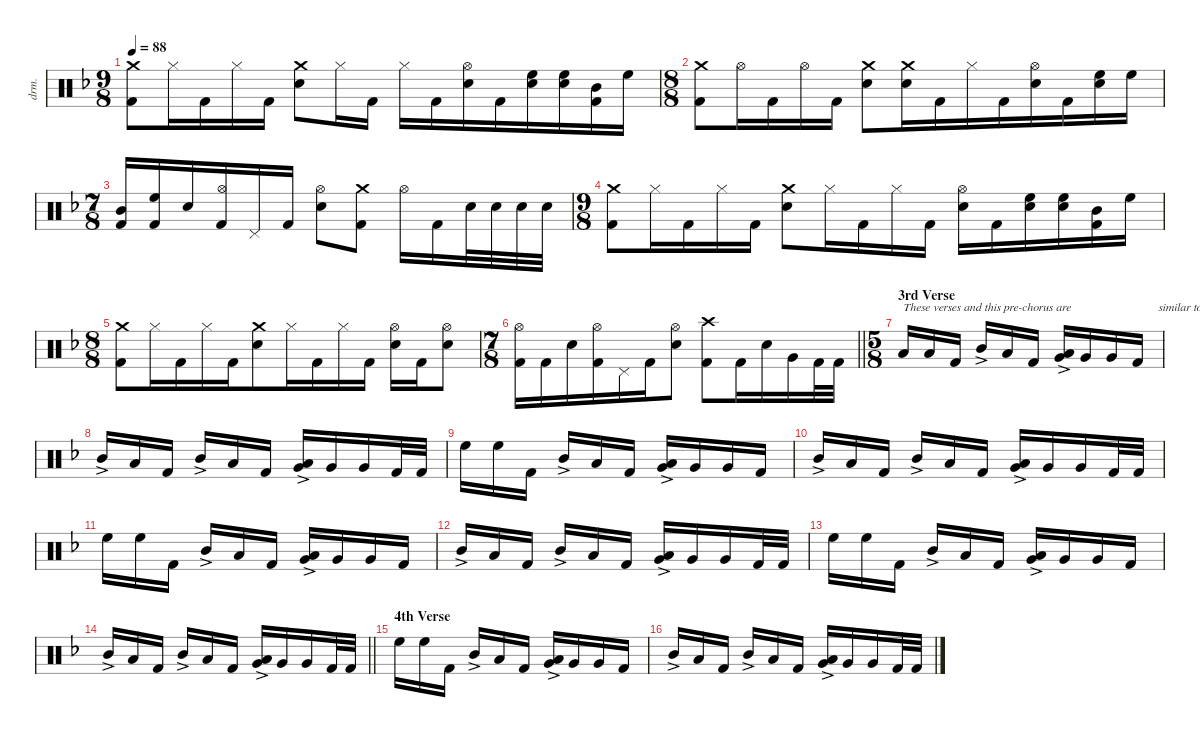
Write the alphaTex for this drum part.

\defaultSystemsLayout 4
\hideDynamics
\bracketExtendMode nobrackets
\otherSystemsTrackNameOrientation horizontal
\track ("Drums" "drm.") {instrument percussion}
\staff {score}
\articulation defaults
\ts (9 8)
\beaming (8 3 2 4)
\tempo 88
\clef neutral
\ks dminor
("Crash medium (hit)"{acc forcenatural} "Kick (hit) 2"{acc forcenatural}).8{dy f beam Down} "Hi-Hat (closed)"{acc forcenatural}.16{beam Down} "Kick (hit) 2"{acc forcenatural}.16{beam Down} "Hi-Hat (closed)"{acc forcenatural}.16{beam Down} "Kick (hit) 2"{acc forcenatural}.16{beam Down} ("Crash medium (hit)"{acc forcenatural} "Snare (hit) 2"{acc forcenatural}).8{beam Down} "Hi-Hat (closed)"{acc forcenatural}.16{beam Down} "Kick (hit) 2"{acc forcenatural}.16{beam Down} "Hi-Hat (closed)"{acc forcenatural}.16{beam Down} "Kick (hit) 2"{acc forcenatural}.16{beam Down} ("Hi-Hat (open)"{acc forcenatural} "Snare (hit) 2"{acc forcenatural}).16{beam Down} "Kick (hit) 2"{acc forcenatural}.16{beam Down} ("High Floor Tom (hit)"{acc forcenatural} "Snare (hit) 2"{acc forcenatural}).16{beam Down} ("High Floor Tom (hit)"{acc forcenatural} "Snare (hit) 2"{acc forcenatural}).16{beam Down} ("Mid Tom (hit)"{acc forcenatural} "Kick (hit) 2"{acc forcenatural}).16{beam Down} "High Floor Tom (hit)"{acc forcenatural}.16{beam Down} |
\ts (8 8)
\beaming (8 3 2 3)
("Crash medium (hit)"{acc forcenatural} "Kick (hit) 2"{acc forcenatural}).8{beam Down beam merge} "Hi-Hat (open)"{acc forcenatural}.16{beam Down} "Kick (hit) 2"{acc forcenatural}.16{beam Down beam merge} "Hi-Hat (open)"{acc forcenatural}.16{beam Down} "Kick (hit) 2"{acc forcenatural}.16{beam Down} ("Crash medium (hit)"{acc forcenatural} "Snare (hit) 2"{acc forcenatural}).8{beam Down beam merge} ("Crash medium (hit)"{acc forcenatural} "Snare (hit) 2"{acc forcenatural}).16{beam Down} "Kick (hit) 2"{acc forcenatural}.16{beam Down beam merge} "Hi-Hat (closed)"{acc forcenatural}.16{beam Down} "Kick (hit) 2"{acc forcenatural}.16{beam Down} ("Hi-Hat (open)"{acc forcenatural} "Snare (hit) 2"{acc forcenatural}).16{beam Down} "Kick (hit) 2"{acc forcenatural}.16{beam Down beam merge} ("High Floor Tom (hit)"{acc forcenatural} "Snare (hit) 2"{acc forcenatural}).16{beam Down} "High Floor Tom (hit)"{acc forcenatural}.16{beam Down} |
\ts (7 8)
\beaming (8 3 2 2)
("Mid Tom (hit)"{acc forcenatural} "Kick (hit) 2"{acc forcenatural}).16{beam Up} ("High Floor Tom (hit)"{acc forcenatural} "Kick (hit) 2"{acc forcenatural}).16{beam Up} "Snare (hit) 2"{acc forcenatural}.16{beam Up} ("Hi-Hat (open)"{acc forcenatural} "Kick (hit) 2"{acc forcenatural}).16{beam Up} "Pedal Hi-Hat (hit)"{acc forcenatural}.16{beam Up} "Kick (hit) 2"{acc forcenatural}.16{beam Up} ("Hi-Hat (open)"{acc forcenatural} "Snare (hit) 2"{acc forcenatural}).8{beam Down} ("Crash medium (hit)"{acc forcenatural} "Kick (hit) 2"{acc forcenatural}).8{beam Down} "Hi-Hat (open)"{acc forcenatural}.16{beam Down} "Kick (hit) 2"{acc forcenatural}.16{beam Down} "Snare (hit) 2"{acc forcenatural}.32{beam Down} "Snare (hit) 2"{acc forcenatural}.32{beam Down} "Snare (hit) 2"{acc forcenatural}.32{beam Down} "Snare (hit) 2"{acc forcenatural}.32{beam Down} |
\ts (9 8)
\beaming (8 3 3 3)
("Crash medium (hit)"{acc forcenatural} "Kick (hit) 2"{acc forcenatural}).8{beam Down} "Hi-Hat (closed)"{acc forcenatural}.16{beam Down} "Kick (hit) 2"{acc forcenatural}.16{beam Down} "Hi-Hat (closed)"{acc forcenatural}.16{beam Down} "Kick (hit) 2"{acc forcenatural}.16{beam Down} ("Crash medium (hit)"{acc forcenatural} "Snare (hit) 2"{acc forcenatural}).8{beam Down} "Hi-Hat (closed)"{acc forcenatural}.16{beam Down} "Kick (hit) 2"{acc forcenatural}.16{beam Down} "Hi-Hat (closed)"{acc forcenatural}.16{beam Down} "Kick (hit) 2"{acc forcenatural}.16{beam Down} ("Hi-Hat (open)"{acc forcenatural} "Snare (hit) 2"{acc forcenatural}).16{beam Down} "Kick (hit) 2"{acc forcenatural}.16{beam Down} ("High Floor Tom (hit)"{acc forcenatural} "Snare (hit) 2"{acc forcenatural}).16{beam Down} ("High Floor Tom (hit)"{acc forcenatural} "Snare (hit) 2"{acc forcenatural}).16{beam Down} ("Mid Tom (hit)"{acc forcenatural} "Kick (hit) 2"{acc forcenatural}).16{beam Down} "High Floor Tom (hit)"{acc forcenatural}.16{beam Down} |
\ts (8 8)
\beaming (8 2 2 2 2)
("Crash medium (hit)"{acc forcenatural} "Kick (hit) 2"{acc forcenatural}).8{beam Down beam merge} "Hi-Hat (closed)"{acc forcenatural}.16{beam Down} "Kick (hit) 2"{acc forcenatural}.16{beam Down beam merge} "Hi-Hat (closed)"{acc forcenatural}.16{beam Down} "Kick (hit) 2"{acc forcenatural}.16{beam Down} ("Crash medium (hit)"{acc forcenatural} "Snare (hit) 2"{acc forcenatural}).8{beam Down beam merge} "Hi-Hat (closed)"{acc forcenatural}.16{beam Down} "Kick (hit) 2"{acc forcenatural}.16{beam Down beam merge} "Hi-Hat (closed)"{acc forcenatural}.16{beam Down} "Kick (hit) 2"{acc forcenatural}.16{beam Down} ("Hi-Hat (open)"{acc forcenatural} "Snare (hit) 2"{acc forcenatural}).16{beam Down} "Kick (hit) 2"{acc forcenatural}.16{beam Down beam merge} ("Hi-Hat (open)"{acc forcenatural} "Snare (hit) 2"{acc forcenatural}).8{beam Down} |
\ts (7 8)
\beaming (8 2 2 2 2)
\barLineRight lightlight
("Hi-Hat (open)"{acc forcenatural} "Kick (hit) 2"{acc forcenatural}).16{beam Down} "Kick (hit) 2"{acc forcenatural}.16{beam Down beam merge} "Snare (hit) 2"{acc forcenatural}.16{beam Down} ("Hi-Hat (open)"{acc forcenatural} "Kick (hit) 2"{acc forcenatural}).16{beam Down beam merge} "Pedal Hi-Hat (hit)"{acc forcenatural}.16{beam Down} "Kick (hit) 2"{acc forcenatural}.16{beam Down beam merge} ("Hi-Hat (open)"{acc forcenatural} "Snare (hit) 2"{acc forcenatural}).8{beam Down beam split} ("Crash high (hit)"{acc forcenatural} "Kick (hit) 2"{acc forcenatural}).8{beam Down beam merge} "Kick (hit) 2"{acc forcenatural}.16{beam Down} "Snare (hit) 2"{acc forcenatural}.16{beam Down beam merge} "Very Low Tom (hit)"{acc forcenatural}.16{beam Down} "Kick (hit) 2"{acc forcenatural}.32{beam Down} "Kick (hit) 2"{acc forcenatural}.32{beam Down} |
\ts (5 8)
\beaming (8 2 2 2 2)
\section ("" "3rd Verse")
"Low Tom (hit)"{acc forcenatural}.16{txt "These verses and this pre-chorus are" beam Up} "Low Tom (hit)"{acc forcenatural}.16{beam Up beam merge} "Kick (hit) 2"{acc forcenatural}.16{beam Up beam split} "Mid Tom (hit)"{ac acc forcenatural}.16{beam Up beam merge} "Low Tom (hit)"{acc forcenatural}.16{beam Up} "Kick (hit) 2"{acc forcenatural}.16{beam Up beam split} ("Low Tom (hit)"{ac acc forcenatural} "Very Low Tom (hit)"{acc forcenatural}).16{beam Up} "Very Low Tom (hit)"{acc forcenatural}.16{beam Up beam merge} "Very Low Tom (hit)"{acc forcenatural}.16{beam Up} "Kick (hit) 2"{acc forcenatural}.16{txt "       similar to previous (bar 87-118 = 44-75)." beam Up} |
"Mid Tom (hit)"{ac acc forcenatural}.16{beam Up} "Low Tom (hit)"{acc forcenatural}.16{beam Up beam merge} "Kick (hit) 2"{acc forcenatural}.16{beam Up beam split} "Mid Tom (hit)"{ac acc forcenatural}.16{beam Up beam merge} "Low Tom (hit)"{acc forcenatural}.16{beam Up} "Kick (hit) 2"{acc forcenatural}.16{beam Up beam split} ("Low Tom (hit)"{ac acc forcenatural} "Very Low Tom (hit)"{acc forcenatural}).16{beam Up} "Very Low Tom (hit)"{acc forcenatural}.16{beam Up beam merge} "Very Low Tom (hit)"{acc forcenatural}.16{beam Up} "Kick (hit) 2"{acc forcenatural}.32{beam Up} "Kick (hit) 2"{acc forcenatural}.32{beam Up} |
"High Floor Tom (hit)"{acc forcenatural}.16{beam Down} "High Floor Tom (hit)"{acc forcenatural}.16{beam Down beam merge} "Kick (hit) 2"{acc forcenatural}.16{beam Down beam split} "Mid Tom (hit)"{ac acc forcenatural}.16{beam Up beam merge} "Low Tom (hit)"{acc forcenatural}.16{beam Up} "Kick (hit) 2"{acc forcenatural}.16{beam Up beam split} ("Low Tom (hit)"{ac acc forcenatural} "Very Low Tom (hit)"{acc forcenatural}).16{beam Up} "Very Low Tom (hit)"{acc forcenatural}.16{beam Up beam merge} "Very Low Tom (hit)"{acc forcenatural}.16{beam Up} "Kick (hit) 2"{acc forcenatural}.16{beam Up} |
"Mid Tom (hit)"{ac acc forcenatural}.16{beam Up} "Low Tom (hit)"{acc forcenatural}.16{beam Up beam merge} "Kick (hit) 2"{acc forcenatural}.16{beam Up beam split} "Mid Tom (hit)"{ac acc forcenatural}.16{beam Up beam merge} "Low Tom (hit)"{acc forcenatural}.16{beam Up} "Kick (hit) 2"{acc forcenatural}.16{beam Up beam split} ("Low Tom (hit)"{ac acc forcenatural} "Very Low Tom (hit)"{acc forcenatural}).16{beam Up} "Very Low Tom (hit)"{acc forcenatural}.16{beam Up beam merge} "Very Low Tom (hit)"{acc forcenatural}.16{beam Up} "Kick (hit) 2"{acc forcenatural}.32{beam Up} "Kick (hit) 2"{acc forcenatural}.32{beam Up} |
"High Floor Tom (hit)"{acc forcenatural}.16{beam Down} "High Floor Tom (hit)"{acc forcenatural}.16{beam Down beam merge} "Kick (hit) 2"{acc forcenatural}.16{beam Down beam split} "Mid Tom (hit)"{ac acc forcenatural}.16{beam Up beam merge} "Low Tom (hit)"{acc forcenatural}.16{beam Up} "Kick (hit) 2"{acc forcenatural}.16{beam Up beam split} ("Low Tom (hit)"{ac acc forcenatural} "Very Low Tom (hit)"{acc forcenatural}).16{beam Up} "Very Low Tom (hit)"{acc forcenatural}.16{beam Up beam merge} "Very Low Tom (hit)"{acc forcenatural}.16{beam Up} "Kick (hit) 2"{acc forcenatural}.16{beam Up} |
"Mid Tom (hit)"{ac acc forcenatural}.16{beam Up} "Low Tom (hit)"{acc forcenatural}.16{beam Up beam merge} "Kick (hit) 2"{acc forcenatural}.16{beam Up beam split} "Mid Tom (hit)"{ac acc forcenatural}.16{beam Up beam merge} "Low Tom (hit)"{acc forcenatural}.16{beam Up} "Kick (hit) 2"{acc forcenatural}.16{beam Up beam split} ("Low Tom (hit)"{ac acc forcenatural} "Very Low Tom (hit)"{acc forcenatural}).16{beam Up} "Very Low Tom (hit)"{acc forcenatural}.16{beam Up beam merge} "Very Low Tom (hit)"{acc forcenatural}.16{beam Up} "Kick (hit) 2"{acc forcenatural}.32{beam Up} "Kick (hit) 2"{acc forcenatural}.32{beam Up} |
"High Floor Tom (hit)"{acc forcenatural}.16{beam Down} "High Floor Tom (hit)"{acc forcenatural}.16{beam Down beam merge} "Kick (hit) 2"{acc forcenatural}.16{beam Down beam split} "Mid Tom (hit)"{ac acc forcenatural}.16{beam Up beam merge} "Low Tom (hit)"{acc forcenatural}.16{beam Up} "Kick (hit) 2"{acc forcenatural}.16{beam Up beam split} ("Low Tom (hit)"{ac acc forcenatural} "Very Low Tom (hit)"{acc forcenatural}).16{beam Up} "Very Low Tom (hit)"{acc forcenatural}.16{beam Up beam merge} "Very Low Tom (hit)"{acc forcenatural}.16{beam Up} "Kick (hit) 2"{acc forcenatural}.16{beam Up} |
\barLineRight lightlight "Mid Tom (hit)"{ac acc forcenatural}.16{beam Up} "Low Tom (hit)"{acc forcenatural}.16{beam Up beam merge} "Kick (hit) 2"{acc forcenatural}.16{beam Up beam split} "Mid Tom (hit)"{ac acc forcenatural}.16{beam Up beam merge} "Low Tom (hit)"{acc forcenatural}.16{beam Up} "Kick (hit) 2"{acc forcenatural}.16{beam Up beam split}
("Low Tom (hit)"{ac acc forcenatural} "Very Low Tom (hit)"{acc forcenatural}).16{beam Up} "Very Low Tom (hit)"{acc forcenatural}.16{beam Up beam merge} "Very Low Tom (hit)"{acc forcenatural}.16{beam Up} "Kick (hit) 2"{acc forcenatural}.32{beam Up} "Kick (hit) 2"{acc forcenatural}.32{beam Up} |
\section ("" "4th Verse")
"High Floor Tom (hit)"{acc forcenatural}.16{beam Down} "High Floor Tom (hit)"{acc forcenatural}.16{beam Down beam merge} "Kick (hit) 2"{acc forcenatural}.16{beam Down beam split} "Mid Tom (hit)"{ac acc forcenatural}.16{beam Up beam merge} "Low Tom (hit)"{acc forcenatural}.16{beam Up} "Kick (hit) 2"{acc forcenatural}.16{beam Up beam split} ("Low Tom (hit)"{ac acc forcenatural} "Very Low Tom (hit)"{acc forcenatural}).16{beam Up} "Very Low Tom (hit)"{acc forcenatural}.16{beam Up beam merge} "Very Low Tom (hit)"{acc forcenatural}.16{beam Up} "Kick (hit) 2"{acc forcenatural}.16{beam Up} |
"Mid Tom (hit)"{ac acc forcenatural}.16{beam Up} "Low Tom (hit)"{acc forcenatural}.16{beam Up beam merge} "Kick (hit) 2"{acc forcenatural}.16{beam Up beam split} "Mid Tom (hit)"{ac acc forcenatural}.16{beam Up beam merge} "Low Tom (hit)"{acc forcenatural}.16{beam Up} "Kick (hit) 2"{acc forcenatural}.16{beam Up beam split} ("Low Tom (hit)"{ac acc forcenatural} "Very Low Tom (hit)"{acc forcenatural}).16{beam Up} "Very Low Tom (hit)"{acc forcenatural}.16{beam Up beam merge} "Very Low Tom (hit)"{acc forcenatural}.16{beam Up} "Kick (hit) 2"{acc forcenatural}.32{beam Up} "Kick (hit) 2"{acc forcenatural}.32{beam Up}
